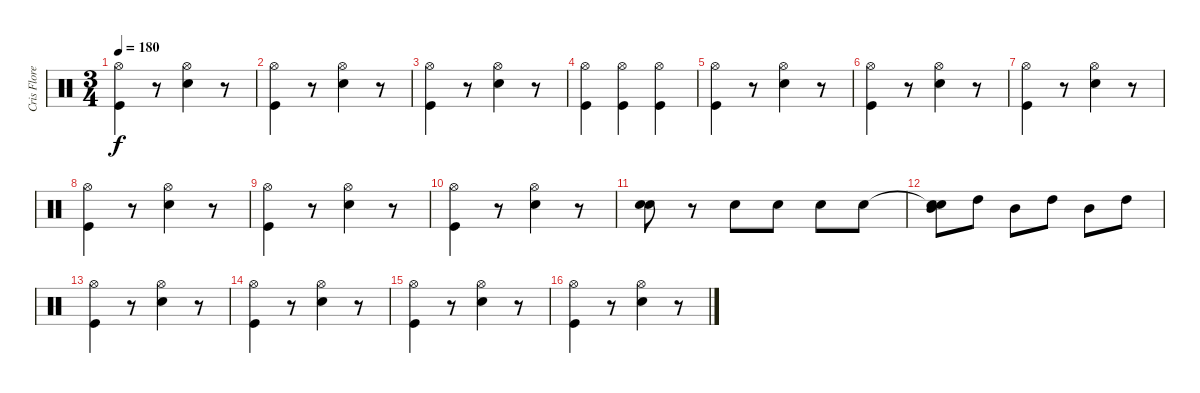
\track ("Cris Flores" "Cris Flore") {instrument percussion}
\staff {score}
\articulation defaults
\ts (3 4)
\tempo 180
\clef neutral
\ks c
("Kick (hit)" "Hi-Hat (open)").4{dy f} r.8 ("Snare (hit) 2" "Hi-Hat (open)").4 r.8 |
("Kick (hit)" "Hi-Hat (open)").4 r.8 ("Snare (hit) 2" "Hi-Hat (open)").4 r.8 |
("Kick (hit)" "Hi-Hat (open)").4 r.8 ("Snare (hit) 2" "Hi-Hat (open)").4 r.8 |
("Kick (hit)" "Hi-Hat (open)").4 ("Kick (hit)" "Hi-Hat (open)").4 ("Kick (hit)" "Hi-Hat (open)").4 |
("Kick (hit)" "Hi-Hat (open)").4 r.8 ("Snare (hit) 2" "Hi-Hat (open)").4 r.8 |
("Kick (hit)" "Hi-Hat (open)").4 r.8 ("Snare (hit) 2" "Hi-Hat (open)").4 r.8 |
("Kick (hit)" "Hi-Hat (open)").4 r.8 ("Snare (hit) 2" "Hi-Hat (open)").4 r.8 |
("Kick (hit)" "Hi-Hat (open)").4 r.8 ("Snare (hit) 2" "Hi-Hat (open)").4 r.8 |
("Kick (hit)" "Hi-Hat (open)").4 r.8 ("Snare (hit) 2" "Hi-Hat (open)").4 r.8 |
("Kick (hit)" "Hi-Hat (open)").4 r.8 ("Snare (hit) 2" "Hi-Hat (open)").4 r.8 |
("Electric Snare (hit)" "Snare (hit) 2").8 r.8 "Snare (hit) 2".8 "Snare (hit) 2".8 "Snare (hit) 2".8 "Snare (hit) 2".8 |
("Snare (hit)"{t} "Mid Tom (hit)" "Snare (hit)").8 "High Tom (hit)".8 "Mid Tom (hit)".8 "High Tom (hit)".8 "Mid Tom (hit)".8 "High Tom (hit)".8 |
("Kick (hit)" "Hi-Hat (open)").4 r.8 ("Snare (hit) 2" "Hi-Hat (open)").4 r.8 |
("Kick (hit)" "Hi-Hat (open)").4 r.8 ("Snare (hit) 2" "Hi-Hat (open)").4 r.8 |
("Kick (hit)" "Hi-Hat (open)").4 r.8 ("Snare (hit) 2" "Hi-Hat (open)").4 r.8 |
("Kick (hit)" "Hi-Hat (open)").4 r.8 ("Snare (hit) 2" "Hi-Hat (open)").4 r.8
